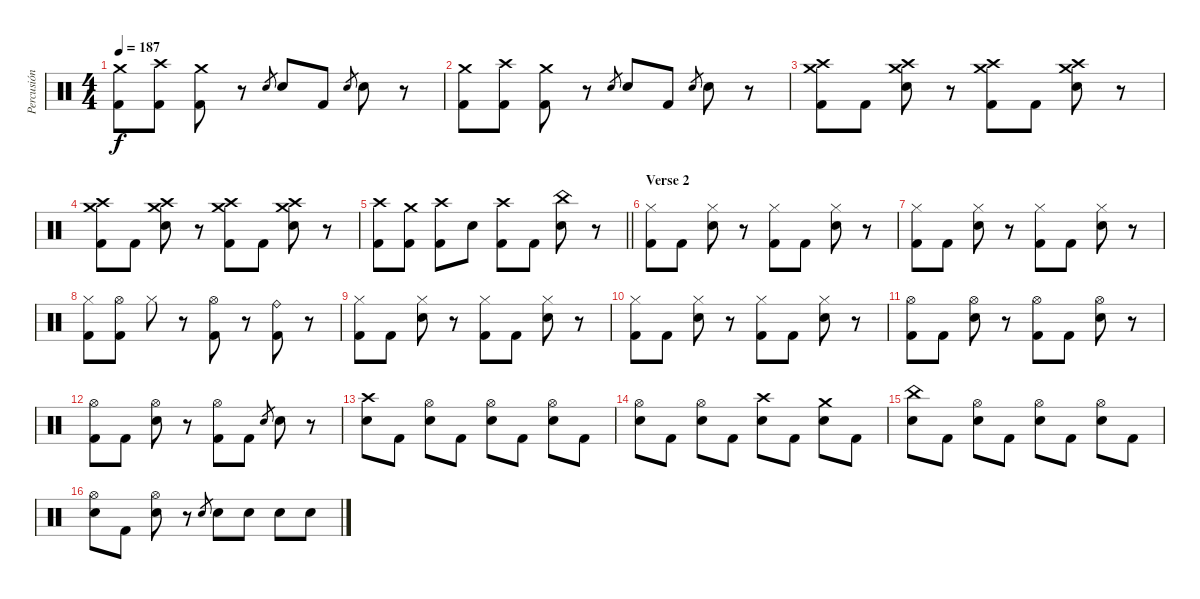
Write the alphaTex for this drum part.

\track ("Percusión" "Percusión") {instrument percussion}
\staff {score}
\articulation defaults
\ts (4 4)
\tempo 187
\clef neutral
\ks c
("Crash medium (hit)" "Kick (hit) 2").8{dy f} ("Crash high (hit)" "Kick (hit) 2").8 ("Crash medium (hit)" "Kick (hit) 2").8 r.8 "Snare (hit) 2".8{gr} "Snare (hit) 2".8 "Kick (hit) 2".8 "Snare (hit) 2".8{gr} "Snare (hit) 2".8 r.8 |
("Crash medium (hit)" "Kick (hit) 2").8 ("Crash high (hit)" "Kick (hit) 2").8 ("Crash medium (hit)" "Kick (hit) 2").8 r.8 "Snare (hit) 2".8{gr} "Snare (hit) 2".8 "Kick (hit) 2".8 "Snare (hit) 2".8{gr} "Snare (hit) 2".8 r.8 |
("Crash high (hit)" "Crash medium (hit)" "Kick (hit) 2").8 "Kick (hit) 2".8 ("Crash high (hit)" "Crash medium (hit)" "Snare (hit) 2").8 r.8 ("Crash high (hit)" "Crash medium (hit)" "Kick (hit) 2").8 "Kick (hit) 2".8 ("Crash high (hit)" "Crash medium (hit)" "Snare (hit) 2").8 r.8 |
("Crash high (hit)" "Crash medium (hit)" "Kick (hit) 2").8 "Kick (hit) 2".8 ("Crash high (hit)" "Crash medium (hit)" "Snare (hit) 2").8 r.8 ("Crash high (hit)" "Crash medium (hit)" "Kick (hit) 2").8 "Kick (hit) 2".8 ("Crash high (hit)" "Crash medium (hit)" "Snare (hit) 2").8 r.8 |
\barLineRight lightlight
("Crash high (hit)" "Kick (hit) 2").8 ("Crash medium (hit)" "Kick (hit) 2").8 ("Crash high (hit)" "Kick (hit) 2").8 "Snare (hit) 2".8 ("Crash high (hit)" "Kick (hit) 2").8 "Kick (hit) 2".8 ("China (hit)" "Snare (hit) 2").8 r.8 |
\section ("" "Verse 2")
("Hi-Hat (closed)" "Kick (hit) 2").8 "Kick (hit) 2".8 ("Hi-Hat (closed)" "Snare (hit) 2").8 r.8 ("Hi-Hat (closed)" "Kick (hit) 2").8 "Kick (hit) 2".8 ("Hi-Hat (closed)" "Snare (hit) 2").8 r.8 |
("Hi-Hat (closed)" "Kick (hit) 2").8 "Kick (hit) 2".8 ("Hi-Hat (closed)" "Snare (hit) 2").8 r.8 ("Hi-Hat (closed)" "Kick (hit) 2").8 "Kick (hit) 2".8 ("Hi-Hat (closed)" "Snare (hit) 2").8 r.8 |
("Hi-Hat (closed)" "Kick (hit) 2").8 ("Hi-Hat (open)" "Kick (hit) 2").8 "Hi-Hat (closed)".8 r.8 ("Hi-Hat (open)" "Kick (hit) 2").8 r.8 ("Ride (bell)" "Kick (hit) 2").8 r.8 |
("Hi-Hat (closed)" "Kick (hit) 2").8 "Kick (hit) 2".8 ("Hi-Hat (closed)" "Snare (hit) 2").8 r.8 ("Hi-Hat (closed)" "Kick (hit) 2").8 "Kick (hit) 2".8 ("Hi-Hat (closed)" "Snare (hit) 2").8 r.8 |
("Hi-Hat (closed)" "Kick (hit) 2").8 "Kick (hit) 2".8 ("Hi-Hat (closed)" "Snare (hit) 2").8 r.8 ("Hi-Hat (closed)" "Kick (hit) 2").8 "Kick (hit) 2".8 ("Hi-Hat (closed)" "Snare (hit) 2").8 r.8 |
("Hi-Hat (open)" "Kick (hit) 2").8 "Kick (hit) 2".8 ("Hi-Hat (open)" "Snare (hit) 2").8 r.8 ("Hi-Hat (open)" "Kick (hit) 2").8 "Kick (hit) 2".8 ("Hi-Hat (open)" "Snare (hit) 2").8 r.8 |
("Hi-Hat (open)" "Kick (hit) 2").8 "Kick (hit) 2".8 ("Hi-Hat (open)" "Snare (hit) 2").8 r.8 ("Hi-Hat (open)" "Kick (hit) 2").8 "Kick (hit) 2".8 "Snare (hit) 2".8{gr} "Snare (hit) 2".8 r.8 |
("Crash high (hit)" "Snare (hit) 2").8 "Kick (hit) 2".8 ("Hi-Hat (open)" "Snare (hit) 2").8 "Kick (hit) 2".8 ("Hi-Hat (open)" "Snare (hit) 2").8 "Kick (hit) 2".8 ("Hi-Hat (open)" "Snare (hit) 2").8 "Kick (hit) 2".8 |
("Hi-Hat (open)" "Snare (hit) 2").8 "Kick (hit) 2".8 ("Hi-Hat (open)" "Snare (hit) 2").8 "Kick (hit) 2".8 ("Crash high (hit)" "Snare (hit) 2").8 "Kick (hit) 2".8 ("Crash medium (hit)" "Snare (hit) 2").8 "Kick (hit) 2".8 |
("China (hit)" "Snare (hit) 2").8 "Kick (hit) 2".8 ("Hi-Hat (open)" "Snare (hit) 2").8 "Kick (hit) 2".8 ("Hi-Hat (open)" "Snare (hit) 2").8 "Kick (hit) 2".8 ("Hi-Hat (open)" "Snare (hit) 2").8 "Kick (hit) 2".8 |
("Hi-Hat (open)" "Snare (hit) 2").8 "Kick (hit) 2".8 ("Hi-Hat (open)" "Snare (hit) 2").8 r.8 "Snare (hit) 2".8{gr} "Snare (hit) 2".8 "Snare (hit) 2".8 "Snare (hit) 2".8 "Snare (hit) 2".8
